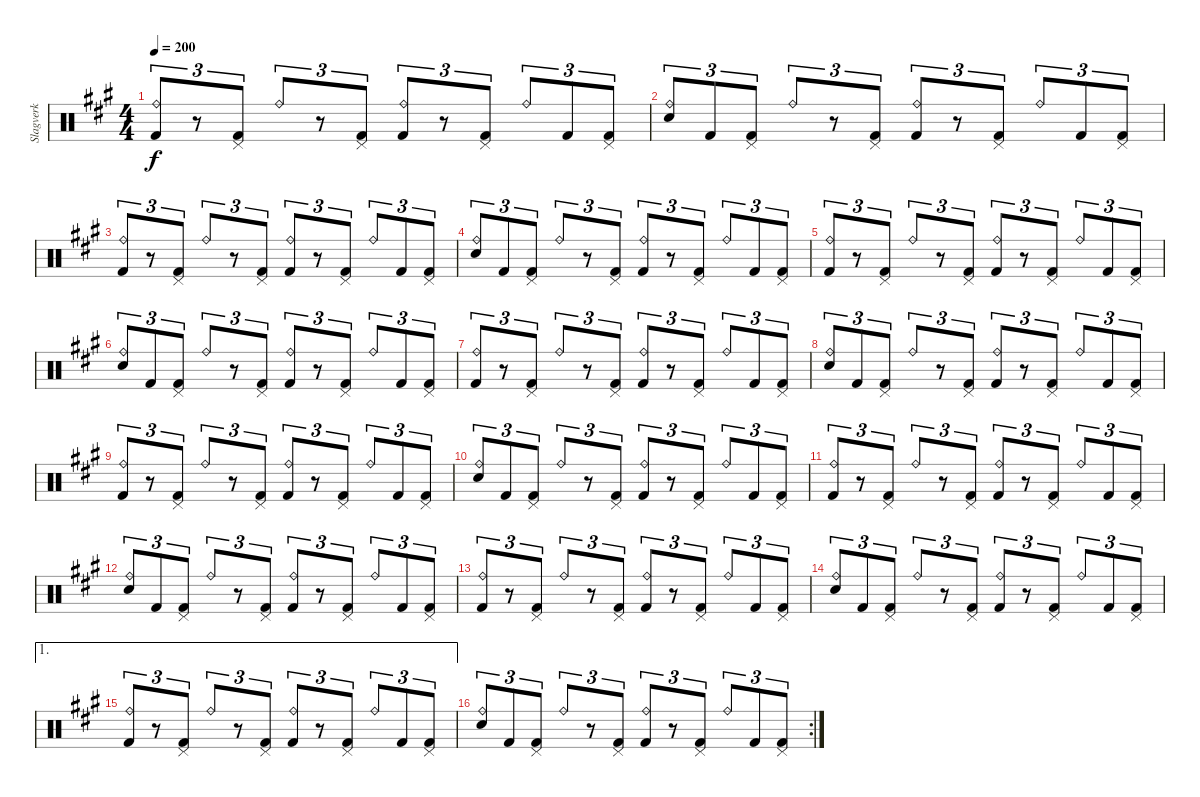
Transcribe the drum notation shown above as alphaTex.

\track ("Slagverk" "Slagverk") {instrument percussion}
\staff {score}
\articulation defaults
\ts (4 4)
\tempo 200
\clef neutral
\ks a
("Ride (bell)" "Kick (hit) 2").8{tu (3 2) dy f} r.8{tu (3 2)} ("Pedal Hi-Hat (hit)" "Kick (hit) 2").8{tu (3 2)} "Ride (bell)".8{tu (3 2)} r.8{tu (3 2)} ("Pedal Hi-Hat (hit)" "Kick (hit) 2").8{tu (3 2)} ("Ride (bell)" "Kick (hit) 2").8{tu (3 2)} r.8{tu (3 2)} ("Pedal Hi-Hat (hit)" "Kick (hit) 2").8{tu (3 2)} "Ride (bell)".8{tu (3 2)} "Kick (hit) 2".8{tu (3 2)} ("Pedal Hi-Hat (hit)" "Kick (hit) 2").8{tu (3 2)} |
("Ride (bell)" "Snare (hit) 2").8{tu (3 2)} "Kick (hit) 2".8{tu (3 2)} ("Pedal Hi-Hat (hit)" "Kick (hit) 2").8{tu (3 2)} "Ride (bell)".8{tu (3 2)} r.8{tu (3 2)} ("Pedal Hi-Hat (hit)" "Kick (hit) 2").8{tu (3 2)} ("Ride (bell)" "Kick (hit) 2").8{tu (3 2)} r.8{tu (3 2)} ("Pedal Hi-Hat (hit)" "Kick (hit) 2").8{tu (3 2)} "Ride (bell)".8{tu (3 2)} "Kick (hit) 2".8{tu (3 2)} ("Pedal Hi-Hat (hit)" "Kick (hit) 2").8{tu (3 2)} |
("Ride (bell)" "Kick (hit) 2").8{tu (3 2)} r.8{tu (3 2)} ("Pedal Hi-Hat (hit)" "Kick (hit) 2").8{tu (3 2)} "Ride (bell)".8{tu (3 2)} r.8{tu (3 2)} ("Pedal Hi-Hat (hit)" "Kick (hit) 2").8{tu (3 2)} ("Ride (bell)" "Kick (hit) 2").8{tu (3 2)} r.8{tu (3 2)} ("Pedal Hi-Hat (hit)" "Kick (hit) 2").8{tu (3 2)} "Ride (bell)".8{tu (3 2)} "Kick (hit) 2".8{tu (3 2)} ("Pedal Hi-Hat (hit)" "Kick (hit) 2").8{tu (3 2)} |
("Ride (bell)" "Snare (hit) 2").8{tu (3 2)} "Kick (hit) 2".8{tu (3 2)} ("Pedal Hi-Hat (hit)" "Kick (hit) 2").8{tu (3 2)} "Ride (bell)".8{tu (3 2)} r.8{tu (3 2)} ("Pedal Hi-Hat (hit)" "Kick (hit) 2").8{tu (3 2)} ("Ride (bell)" "Kick (hit) 2").8{tu (3 2)} r.8{tu (3 2)} ("Pedal Hi-Hat (hit)" "Kick (hit) 2").8{tu (3 2)} "Ride (bell)".8{tu (3 2)} "Kick (hit) 2".8{tu (3 2)} ("Pedal Hi-Hat (hit)" "Kick (hit) 2").8{tu (3 2)} |
("Ride (bell)" "Kick (hit) 2").8{tu (3 2)} r.8{tu (3 2)} ("Pedal Hi-Hat (hit)" "Kick (hit) 2").8{tu (3 2)} "Ride (bell)".8{tu (3 2)} r.8{tu (3 2)} ("Pedal Hi-Hat (hit)" "Kick (hit) 2").8{tu (3 2)} ("Ride (bell)" "Kick (hit) 2").8{tu (3 2)} r.8{tu (3 2)} ("Pedal Hi-Hat (hit)" "Kick (hit) 2").8{tu (3 2)} "Ride (bell)".8{tu (3 2)} "Kick (hit) 2".8{tu (3 2)} ("Pedal Hi-Hat (hit)" "Kick (hit) 2").8{tu (3 2)} |
("Ride (bell)" "Snare (hit) 2").8{tu (3 2)} "Kick (hit) 2".8{tu (3 2)} ("Pedal Hi-Hat (hit)" "Kick (hit) 2").8{tu (3 2)} "Ride (bell)".8{tu (3 2)} r.8{tu (3 2)} ("Pedal Hi-Hat (hit)" "Kick (hit) 2").8{tu (3 2)} ("Ride (bell)" "Kick (hit) 2").8{tu (3 2)} r.8{tu (3 2)} ("Pedal Hi-Hat (hit)" "Kick (hit) 2").8{tu (3 2)} "Ride (bell)".8{tu (3 2)} "Kick (hit) 2".8{tu (3 2)} ("Pedal Hi-Hat (hit)" "Kick (hit) 2").8{tu (3 2)} |
("Ride (bell)" "Kick (hit) 2").8{tu (3 2)} r.8{tu (3 2)} ("Pedal Hi-Hat (hit)" "Kick (hit) 2").8{tu (3 2)} "Ride (bell)".8{tu (3 2)} r.8{tu (3 2)} ("Pedal Hi-Hat (hit)" "Kick (hit) 2").8{tu (3 2)} ("Ride (bell)" "Kick (hit) 2").8{tu (3 2)} r.8{tu (3 2)} ("Pedal Hi-Hat (hit)" "Kick (hit) 2").8{tu (3 2)} "Ride (bell)".8{tu (3 2)} "Kick (hit) 2".8{tu (3 2)} ("Pedal Hi-Hat (hit)" "Kick (hit) 2").8{tu (3 2)} |
("Ride (bell)" "Snare (hit) 2").8{tu (3 2)} "Kick (hit) 2".8{tu (3 2)} ("Pedal Hi-Hat (hit)" "Kick (hit) 2").8{tu (3 2)} "Ride (bell)".8{tu (3 2)} r.8{tu (3 2)} ("Pedal Hi-Hat (hit)" "Kick (hit) 2").8{tu (3 2)} ("Ride (bell)" "Kick (hit) 2").8{tu (3 2)} r.8{tu (3 2)} ("Pedal Hi-Hat (hit)" "Kick (hit) 2").8{tu (3 2)} "Ride (bell)".8{tu (3 2)} "Kick (hit) 2".8{tu (3 2)} ("Pedal Hi-Hat (hit)" "Kick (hit) 2").8{tu (3 2)} |
("Ride (bell)" "Kick (hit) 2").8{tu (3 2)} r.8{tu (3 2)} ("Pedal Hi-Hat (hit)" "Kick (hit) 2").8{tu (3 2)} "Ride (bell)".8{tu (3 2)} r.8{tu (3 2)} ("Pedal Hi-Hat (hit)" "Kick (hit) 2").8{tu (3 2)} ("Ride (bell)" "Kick (hit) 2").8{tu (3 2)} r.8{tu (3 2)} ("Pedal Hi-Hat (hit)" "Kick (hit) 2").8{tu (3 2)} "Ride (bell)".8{tu (3 2)} "Kick (hit) 2".8{tu (3 2)} ("Pedal Hi-Hat (hit)" "Kick (hit) 2").8{tu (3 2)} |
("Ride (bell)" "Snare (hit) 2").8{tu (3 2)} "Kick (hit) 2".8{tu (3 2)} ("Pedal Hi-Hat (hit)" "Kick (hit) 2").8{tu (3 2)} "Ride (bell)".8{tu (3 2)} r.8{tu (3 2)} ("Pedal Hi-Hat (hit)" "Kick (hit) 2").8{tu (3 2)} ("Ride (bell)" "Kick (hit) 2").8{tu (3 2)} r.8{tu (3 2)} ("Pedal Hi-Hat (hit)" "Kick (hit) 2").8{tu (3 2)} "Ride (bell)".8{tu (3 2)} "Kick (hit) 2".8{tu (3 2)} ("Pedal Hi-Hat (hit)" "Kick (hit) 2").8{tu (3 2)} |
("Ride (bell)" "Kick (hit) 2").8{tu (3 2)} r.8{tu (3 2)} ("Pedal Hi-Hat (hit)" "Kick (hit) 2").8{tu (3 2)} "Ride (bell)".8{tu (3 2)} r.8{tu (3 2)} ("Pedal Hi-Hat (hit)" "Kick (hit) 2").8{tu (3 2)} ("Ride (bell)" "Kick (hit) 2").8{tu (3 2)} r.8{tu (3 2)} ("Pedal Hi-Hat (hit)" "Kick (hit) 2").8{tu (3 2)} "Ride (bell)".8{tu (3 2)} "Kick (hit) 2".8{tu (3 2)} ("Pedal Hi-Hat (hit)" "Kick (hit) 2").8{tu (3 2)} |
("Ride (bell)" "Snare (hit) 2").8{tu (3 2)} "Kick (hit) 2".8{tu (3 2)} ("Pedal Hi-Hat (hit)" "Kick (hit) 2").8{tu (3 2)} "Ride (bell)".8{tu (3 2)} r.8{tu (3 2)} ("Pedal Hi-Hat (hit)" "Kick (hit) 2").8{tu (3 2)} ("Ride (bell)" "Kick (hit) 2").8{tu (3 2)} r.8{tu (3 2)} ("Pedal Hi-Hat (hit)" "Kick (hit) 2").8{tu (3 2)} "Ride (bell)".8{tu (3 2)} "Kick (hit) 2".8{tu (3 2)} ("Pedal Hi-Hat (hit)" "Kick (hit) 2").8{tu (3 2)} |
("Ride (bell)" "Kick (hit) 2").8{tu (3 2)} r.8{tu (3 2)} ("Pedal Hi-Hat (hit)" "Kick (hit) 2").8{tu (3 2)} "Ride (bell)".8{tu (3 2)} r.8{tu (3 2)} ("Pedal Hi-Hat (hit)" "Kick (hit) 2").8{tu (3 2)} ("Ride (bell)" "Kick (hit) 2").8{tu (3 2)} r.8{tu (3 2)} ("Pedal Hi-Hat (hit)" "Kick (hit) 2").8{tu (3 2)} "Ride (bell)".8{tu (3 2)} "Kick (hit) 2".8{tu (3 2)} ("Pedal Hi-Hat (hit)" "Kick (hit) 2").8{tu (3 2)} |
("Ride (bell)" "Snare (hit) 2").8{tu (3 2)} "Kick (hit) 2".8{tu (3 2)} ("Pedal Hi-Hat (hit)" "Kick (hit) 2").8{tu (3 2)} "Ride (bell)".8{tu (3 2)} r.8{tu (3 2)} ("Pedal Hi-Hat (hit)" "Kick (hit) 2").8{tu (3 2)} ("Ride (bell)" "Kick (hit) 2").8{tu (3 2)} r.8{tu (3 2)} ("Pedal Hi-Hat (hit)" "Kick (hit) 2").8{tu (3 2)} "Ride (bell)".8{tu (3 2)} "Kick (hit) 2".8{tu (3 2)} ("Pedal Hi-Hat (hit)" "Kick (hit) 2").8{tu (3 2)} |
\ae 1
("Ride (bell)" "Kick (hit) 2").8{tu (3 2)} r.8{tu (3 2)} ("Pedal Hi-Hat (hit)" "Kick (hit) 2").8{tu (3 2)} "Ride (bell)".8{tu (3 2)} r.8{tu (3 2)} ("Pedal Hi-Hat (hit)" "Kick (hit) 2").8{tu (3 2)} ("Ride (bell)" "Kick (hit) 2").8{tu (3 2)} r.8{tu (3 2)} ("Pedal Hi-Hat (hit)" "Kick (hit) 2").8{tu (3 2)} "Ride (bell)".8{tu (3 2)} "Kick (hit) 2".8{tu (3 2)} ("Pedal Hi-Hat (hit)" "Kick (hit) 2").8{tu (3 2)} |
\rc 2
("Ride (bell)" "Snare (hit) 2").8{tu (3 2)} "Kick (hit) 2".8{tu (3 2)} ("Pedal Hi-Hat (hit)" "Kick (hit) 2").8{tu (3 2)} "Ride (bell)".8{tu (3 2)} r.8{tu (3 2)} ("Pedal Hi-Hat (hit)" "Kick (hit) 2").8{tu (3 2)} ("Ride (bell)" "Kick (hit) 2").8{tu (3 2)} r.8{tu (3 2)} ("Pedal Hi-Hat (hit)" "Kick (hit) 2").8{tu (3 2)} "Ride (bell)".8{tu (3 2)} "Kick (hit) 2".8{tu (3 2)} ("Pedal Hi-Hat (hit)" "Kick (hit) 2").8{tu (3 2)}
